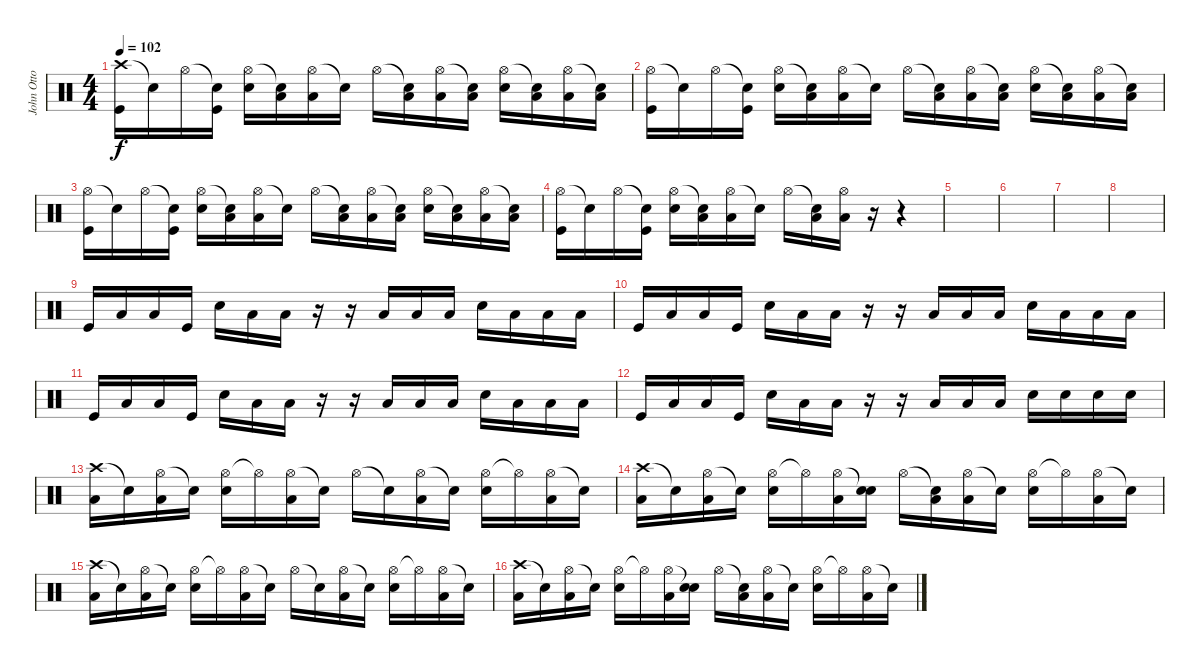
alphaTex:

\track ("John Otto (1st Drums)" "John Otto ") {instrument percussion}
\staff {score}
\articulation defaults
\ts (4 4)
\tempo 102
\clef neutral
\ks c
("Crash high (hit)" "Kick (hit)").16{dy f} "Snare (hit)"{t}.16 "Hi-Hat (open)".16 ("Snare (hit)"{t} "Kick (hit)").16 ("Hi-Hat (open)" "Snare (hit) 2").16 ("Snare (hit)"{t} "Low Tom (hit)").16 ("Hi-Hat (open)" "Low Tom (hit)").16 "Snare (hit)"{t}.16 "Hi-Hat (open)".16 ("Snare (hit)"{t} "Low Tom (hit)").16 ("Hi-Hat (open)" "Low Tom (hit)").16 ("Snare (hit)"{t} "Low Tom (hit)").16 ("Hi-Hat (open)" "Snare (hit) 2").16 ("Snare (hit)"{t} "Low Tom (hit)").16 ("Hi-Hat (open)" "Low Tom (hit)").16 ("Snare (hit)"{t} "Low Tom (hit)").16 |
("Hi-Hat (open)" "Kick (hit)").16 "Snare (hit)"{t}.16 "Hi-Hat (open)".16 ("Snare (hit)"{t} "Kick (hit)").16 ("Hi-Hat (open)" "Snare (hit) 2").16 ("Snare (hit)"{t} "Low Tom (hit)").16 ("Hi-Hat (open)" "Low Tom (hit)").16 "Snare (hit)"{t}.16 "Hi-Hat (open)".16 ("Snare (hit)"{t} "Low Tom (hit)").16 ("Hi-Hat (open)" "Low Tom (hit)").16 ("Snare (hit)"{t} "Low Tom (hit)").16 ("Hi-Hat (open)" "Snare (hit) 2").16 ("Snare (hit)"{t} "Low Tom (hit)").16 ("Hi-Hat (open)" "Low Tom (hit)").16 ("Snare (hit)"{t} "Low Tom (hit)").16 |
("Hi-Hat (open)" "Kick (hit)").16 "Snare (hit)"{t}.16 "Hi-Hat (open)".16 ("Snare (hit)"{t} "Kick (hit)").16 ("Hi-Hat (open)" "Snare (hit) 2").16 ("Snare (hit)"{t} "Low Tom (hit)").16 ("Hi-Hat (open)" "Low Tom (hit)").16 "Snare (hit)"{t}.16 "Hi-Hat (open)".16 ("Snare (hit)"{t} "Low Tom (hit)").16 ("Hi-Hat (open)" "Low Tom (hit)").16 ("Snare (hit)"{t} "Low Tom (hit)").16 ("Hi-Hat (open)" "Snare (hit) 2").16 ("Snare (hit)"{t} "Low Tom (hit)").16 ("Hi-Hat (open)" "Low Tom (hit)").16 ("Snare (hit)"{t} "Low Tom (hit)").16 |
("Hi-Hat (open)" "Kick (hit)").16 "Snare (hit)"{t}.16 "Hi-Hat (open)".16 ("Snare (hit)"{t} "Kick (hit)").16 ("Hi-Hat (open)" "Snare (hit) 2").16 ("Snare (hit)"{t} "Low Tom (hit)").16 ("Hi-Hat (open)" "Low Tom (hit)").16 "Snare (hit)"{t}.16 "Hi-Hat (open)".16 ("Snare (hit)"{t} "Low Tom (hit)").16 ("Hi-Hat (open)" "Low Tom (hit)").16 r.16 r.4 |
|
|
|
|
"Kick (hit)".16 "Low Tom (hit)".16 "Low Tom (hit)".16 "Kick (hit)".16 "Snare (hit) 2".16 "Low Tom (hit)".16 "Low Tom (hit)".16 r.16 r.16 "Low Tom (hit)".16 "Low Tom (hit)".16 "Low Tom (hit)".16 "Snare (hit) 2".16 "Low Tom (hit)".16 "Low Tom (hit)".16 "Low Tom (hit)".16 |
"Kick (hit)".16 "Low Tom (hit)".16 "Low Tom (hit)".16 "Kick (hit)".16 "Snare (hit) 2".16 "Low Tom (hit)".16 "Low Tom (hit)".16 r.16 r.16 "Low Tom (hit)".16 "Low Tom (hit)".16 "Low Tom (hit)".16 "Snare (hit) 2".16 "Low Tom (hit)".16 "Low Tom (hit)".16 "Low Tom (hit)".16 |
"Kick (hit)".16 "Low Tom (hit)".16 "Low Tom (hit)".16 "Kick (hit)".16 "Snare (hit) 2".16 "Low Tom (hit)".16 "Low Tom (hit)".16 r.16 r.16 "Low Tom (hit)".16 "Low Tom (hit)".16 "Low Tom (hit)".16 "Snare (hit) 2".16 "Low Tom (hit)".16 "Low Tom (hit)".16 "Low Tom (hit)".16 |
"Kick (hit)".16 "Low Tom (hit)".16 "Low Tom (hit)".16 "Kick (hit)".16 "Snare (hit) 2".16 "Low Tom (hit)".16 "Low Tom (hit)".16 r.16 r.16 "Low Tom (hit)".16 "Low Tom (hit)".16 "Low Tom (hit)".16 "Snare (hit) 2".16 "Snare (hit) 2".16 "Snare (hit) 2".16 "Snare (hit) 2".16 |
("Crash high (hit)" "Low Tom (hit)").16 "Snare (hit)"{t}.16 ("Hi-Hat (open)" "Low Tom (hit)").16 "Snare (hit)"{t}.16 ("Hi-Hat (open)" "Snare (hit) 2").16 "Hi-Hat (open)"{t}.16 ("Hi-Hat (open)" "Low Tom (hit)").16 "Snare (hit)"{t}.16 "Hi-Hat (open)".16 "Snare (hit)"{t}.16 ("Hi-Hat (open)" "Low Tom (hit)").16 "Snare (hit)"{t}.16 ("Hi-Hat (open)" "Snare (hit) 2").16 "Hi-Hat (open)"{t}.16 ("Hi-Hat (open)" "Low Tom (hit)").16 "Snare (hit)"{t}.16 |
("Crash high (hit)" "Low Tom (hit)").16 "Snare (hit)"{t}.16 ("Hi-Hat (open)" "Low Tom (hit)").16 "Snare (hit)"{t}.16 ("Hi-Hat (open)" "Snare (hit) 2").16 "Hi-Hat (open)"{t}.16 ("Hi-Hat (open)" "Low Tom (hit)").16 ("Snare (hit)"{t} "Snare (hit) 2").16 "Hi-Hat (open)".16 ("Snare (hit)"{t} "Low Tom (hit)").16 ("Hi-Hat (open)" "Low Tom (hit)").16 "Snare (hit)"{t}.16 ("Hi-Hat (open)" "Snare (hit) 2").16 "Hi-Hat (open)"{t}.16 ("Hi-Hat (open)" "Low Tom (hit)").16 "Snare (hit)"{t}.16 |
("Crash high (hit)" "Low Tom (hit)").16 "Snare (hit)"{t}.16 ("Hi-Hat (open)" "Low Tom (hit)").16 "Snare (hit)"{t}.16 ("Hi-Hat (open)" "Snare (hit) 2").16 "Hi-Hat (open)"{t}.16 ("Hi-Hat (open)" "Low Tom (hit)").16 "Snare (hit)"{t}.16 "Hi-Hat (open)".16 "Snare (hit)"{t}.16 ("Hi-Hat (open)" "Low Tom (hit)").16 "Snare (hit)"{t}.16 ("Hi-Hat (open)" "Snare (hit) 2").16 "Hi-Hat (open)"{t}.16 ("Hi-Hat (open)" "Low Tom (hit)").16 "Snare (hit)"{t}.16 |
("Crash high (hit)" "Low Tom (hit)").16 "Snare (hit)"{t}.16 ("Hi-Hat (open)" "Low Tom (hit)").16 "Snare (hit)"{t}.16 ("Hi-Hat (open)" "Snare (hit) 2").16 "Hi-Hat (open)"{t}.16 ("Hi-Hat (open)" "Low Tom (hit)").16 ("Snare (hit)"{t} "Snare (hit) 2").16 "Hi-Hat (open)".16 ("Snare (hit)"{t} "Low Tom (hit)").16 ("Hi-Hat (open)" "Low Tom (hit)").16 "Snare (hit)"{t}.16 ("Hi-Hat (open)" "Snare (hit) 2").16 "Hi-Hat (open)"{t}.16 ("Hi-Hat (open)" "Low Tom (hit)").16 "Snare (hit)"{t}.16
